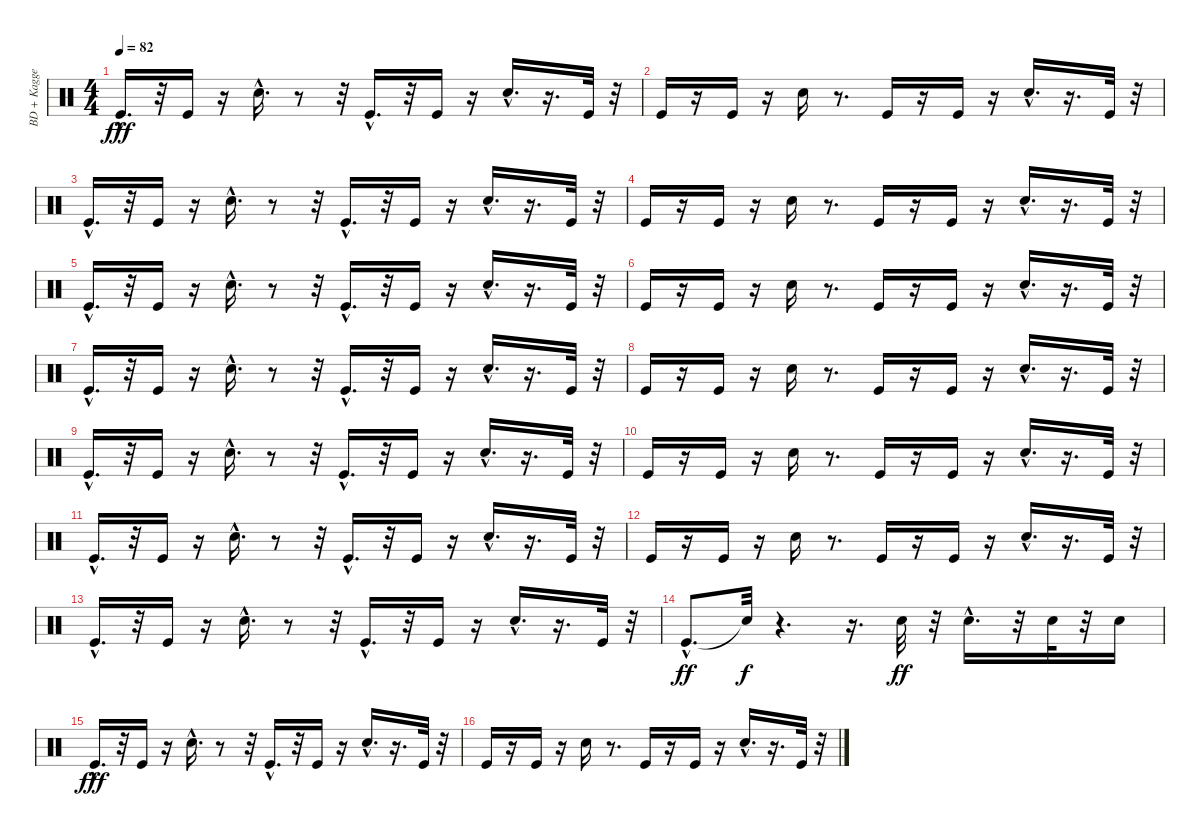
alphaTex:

\track ("BD + Kagge" "BD + Kagge") {instrument percussion}
\staff {score}
\articulation defaults
\ts (4 4)
\tempo 82
\clef neutral
\ks c "Kick (hit)"{hac}.16{d dy fff}
r.32 "Kick (hit)".16 r.16 "Electric Snare (hit)"{hac}.16{d} r.8 r.32 "Kick (hit)"{hac}.16{d} r.32 "Kick (hit)".16 r.16 "Electric Snare (hit)"{hac}.16{d} r.16{d} "Kick (hit)".32 r.32 |
"Kick (hit)".16 r.16 "Kick (hit)".16 r.16 "Electric Snare (hit)".16 r.8{d} "Kick (hit)".16 r.16 "Kick (hit)".16 r.16 "Electric Snare (hit)"{hac}.16{d} r.16{d} "Kick (hit)".32 r.32 |
"Kick (hit)"{hac}.16{d} r.32 "Kick (hit)".16 r.16 "Electric Snare (hit)"{hac}.16{d} r.8 r.32 "Kick (hit)"{hac}.16{d} r.32 "Kick (hit)".16 r.16 "Electric Snare (hit)"{hac}.16{d} r.16{d} "Kick (hit)".32 r.32 |
"Kick (hit)".16 r.16 "Kick (hit)".16 r.16 "Electric Snare (hit)".16 r.8{d} "Kick (hit)".16 r.16 "Kick (hit)".16 r.16 "Electric Snare (hit)"{hac}.16{d} r.16{d} "Kick (hit)".32 r.32 |
"Kick (hit)"{hac}.16{d} r.32 "Kick (hit)".16 r.16 "Electric Snare (hit)"{hac}.16{d} r.8 r.32 "Kick (hit)"{hac}.16{d} r.32 "Kick (hit)".16 r.16 "Electric Snare (hit)"{hac}.16{d} r.16{d} "Kick (hit)".32 r.32 |
"Kick (hit)".16 r.16 "Kick (hit)".16 r.16 "Electric Snare (hit)".16 r.8{d} "Kick (hit)".16 r.16 "Kick (hit)".16 r.16 "Electric Snare (hit)"{hac}.16{d} r.16{d} "Kick (hit)".32 r.32 |
"Kick (hit)"{hac}.16{d} r.32 "Kick (hit)".16 r.16 "Electric Snare (hit)"{hac}.16{d} r.8 r.32 "Kick (hit)"{hac}.16{d} r.32 "Kick (hit)".16 r.16 "Electric Snare (hit)"{hac}.16{d} r.16{d} "Kick (hit)".32 r.32 |
"Kick (hit)".16 r.16 "Kick (hit)".16 r.16 "Electric Snare (hit)".16 r.8{d} "Kick (hit)".16 r.16 "Kick (hit)".16 r.16 "Electric Snare (hit)"{hac}.16{d} r.16{d} "Kick (hit)".32 r.32 |
"Kick (hit)"{hac}.16{d} r.32 "Kick (hit)".16 r.16 "Electric Snare (hit)"{hac}.16{d} r.8 r.32 "Kick (hit)"{hac}.16{d} r.32 "Kick (hit)".16 r.16 "Electric Snare (hit)"{hac}.16{d} r.16{d} "Kick (hit)".32 r.32 |
"Kick (hit)".16 r.16 "Kick (hit)".16 r.16 "Electric Snare (hit)".16 r.8{d} "Kick (hit)".16 r.16 "Kick (hit)".16 r.16 "Electric Snare (hit)"{hac}.16{d} r.16{d} "Kick (hit)".32 r.32 |
"Kick (hit)"{hac}.16{d} r.32 "Kick (hit)".16 r.16 "Electric Snare (hit)"{hac}.16{d} r.8 r.32 "Kick (hit)"{hac}.16{d} r.32 "Kick (hit)".16 r.16 "Electric Snare (hit)"{hac}.16{d} r.16{d} "Kick (hit)".32 r.32 |
"Kick (hit)".16 r.16 "Kick (hit)".16 r.16 "Electric Snare (hit)".16 r.8{d} "Kick (hit)".16 r.16 "Kick (hit)".16 r.16 "Electric Snare (hit)"{hac}.16{d} r.16{d} "Kick (hit)".32 r.32 |
"Kick (hit)"{hac}.16{d} r.32 "Kick (hit)".16 r.16 "Electric Snare (hit)"{hac}.16{d} r.8 r.32 "Kick (hit)"{hac}.16{d} r.32 "Kick (hit)".16 r.16 "Electric Snare (hit)"{hac}.16{d} r.16{d} "Kick (hit)".32 r.32 |
"Kick (hit)"{hac}.8{d dy ff} "Snare (hit)"{t}.32{dy f} r.4{d} r.16{d} "Electric Snare (hit)".32{dy ff} r.32 "Electric Snare (hit)"{hac}.16{d} r.32 "Electric Snare (hit)".32 r.32 "Electric Snare (hit)".16 |
"Kick (hit)"{hac}.16{d dy fff} r.32 "Kick (hit)".16 r.16 "Electric Snare (hit)"{hac}.16{d} r.8 r.32 "Kick (hit)"{hac}.16{d} r.32 "Kick (hit)".16 r.16 "Electric Snare (hit)"{hac}.16{d} r.16{d} "Kick (hit)".32 r.32 |
"Kick (hit)".16 r.16 "Kick (hit)".16 r.16 "Electric Snare (hit)".16 r.8{d} "Kick (hit)".16 r.16 "Kick (hit)".16 r.16 "Electric Snare (hit)"{hac}.16{d} r.16{d} "Kick (hit)".32 r.32
